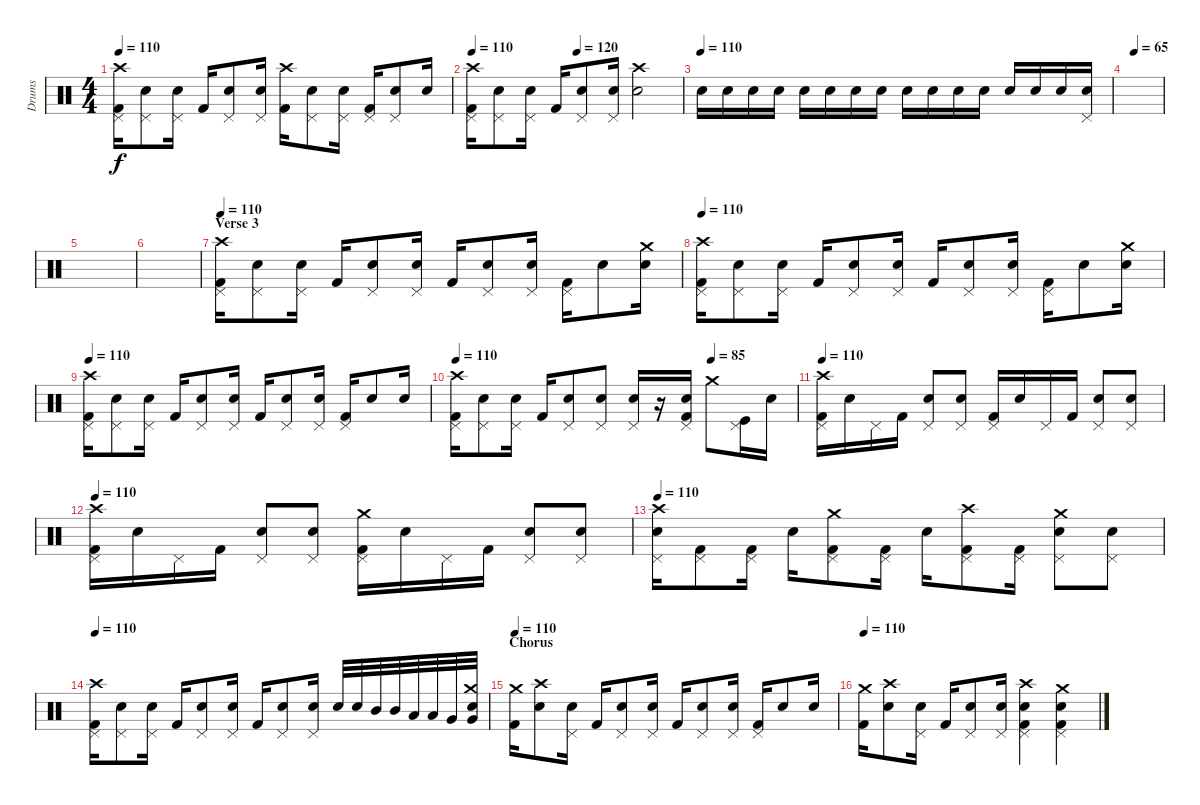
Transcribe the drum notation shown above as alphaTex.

\track ("Drums" "Drums") {instrument percussion}
\staff {score}
\articulation defaults
\ts (4 4)
\tempo 110
\clef neutral
\ks c
("Crash high (hit)" "Kick (hit) 2" "Pedal Hi-Hat (hit)").16{dy f volume 13} ("Electric Snare (hit)" "Pedal Hi-Hat (hit)").8 ("Electric Snare (hit)" "Pedal Hi-Hat (hit)").16 "Kick (hit) 2".16 ("Electric Snare (hit)" "Pedal Hi-Hat (hit)").8 ("Electric Snare (hit)" "Pedal Hi-Hat (hit)").16 ("Crash high (hit)" "Kick (hit) 2").16 ("Electric Snare (hit)" "Pedal Hi-Hat (hit)").8 ("Electric Snare (hit)" "Pedal Hi-Hat (hit)").16 ("Kick (hit) 2" "Pedal Hi-Hat (hit)").16 ("Electric Snare (hit)" "Pedal Hi-Hat (hit)").8 "Electric Snare (hit)".16 |
\tempo 110
\tempo (120 0.5)
("Crash high (hit)" "Kick (hit) 2" "Pedal Hi-Hat (hit)").16{volume 13} ("Electric Snare (hit)" "Pedal Hi-Hat (hit)").8 ("Electric Snare (hit)" "Pedal Hi-Hat (hit)").16 "Kick (hit) 2".16 ("Electric Snare (hit)" "Pedal Hi-Hat (hit)").8 ("Electric Snare (hit)" "Pedal Hi-Hat (hit)").16 ("Crash high (hit)" "Electric Snare (hit)").2 |
\tempo (110)
"Electric Snare (hit)".16{volume 9} "Electric Snare (hit)".16 "Electric Snare (hit)".16{volume 10} "Electric Snare (hit)".16 "Electric Snare (hit)".16{volume 11} "Electric Snare (hit)".16 "Electric Snare (hit)".16{volume 12} "Electric Snare (hit)".16 "Electric Snare (hit)".16{volume 13} "Electric Snare (hit)".16 "Electric Snare (hit)".16{volume 14} "Electric Snare (hit)".16 "Electric Snare (hit)".16{volume 15} "Electric Snare (hit)".16 "Electric Snare (hit)".16 ("Electric Snare (hit)" "Pedal Hi-Hat (hit)").16 |
\tempo (65 0.25)
|
|
|
\section ("" "Verse 3")
\tempo 110
("Crash high (hit)" "Kick (hit) 2" "Pedal Hi-Hat (hit)").16{volume 13} ("Electric Snare (hit)" "Pedal Hi-Hat (hit)").8 ("Electric Snare (hit)" "Pedal Hi-Hat (hit)").16 "Kick (hit) 2".16 ("Electric Snare (hit)" "Pedal Hi-Hat (hit)").8 ("Electric Snare (hit)" "Pedal Hi-Hat (hit)").16 "Kick (hit) 2".16 ("Electric Snare (hit)" "Pedal Hi-Hat (hit)").8 ("Electric Snare (hit)" "Pedal Hi-Hat (hit)").16 ("Kick (hit) 2" "Pedal Hi-Hat (hit)").16 "Electric Snare (hit)".8 ("Electric Snare (hit)" "Crash medium (hit)").16 |
\tempo 110
("Crash high (hit)" "Kick (hit) 2" "Pedal Hi-Hat (hit)").16{volume 13} ("Electric Snare (hit)" "Pedal Hi-Hat (hit)").8 ("Electric Snare (hit)" "Pedal Hi-Hat (hit)").16 "Kick (hit) 2".16 ("Electric Snare (hit)" "Pedal Hi-Hat (hit)").8 ("Electric Snare (hit)" "Pedal Hi-Hat (hit)").16 "Kick (hit) 2".16 ("Electric Snare (hit)" "Pedal Hi-Hat (hit)").8 ("Electric Snare (hit)" "Pedal Hi-Hat (hit)").16 ("Kick (hit) 2" "Pedal Hi-Hat (hit)").16 "Electric Snare (hit)".8 ("Electric Snare (hit)" "Crash medium (hit)").16 |
\tempo 110
("Crash high (hit)" "Kick (hit) 2" "Pedal Hi-Hat (hit)").16{volume 13} ("Electric Snare (hit)" "Pedal Hi-Hat (hit)").8 ("Electric Snare (hit)" "Pedal Hi-Hat (hit)").16 "Kick (hit) 2".16 ("Electric Snare (hit)" "Pedal Hi-Hat (hit)").8 ("Electric Snare (hit)" "Pedal Hi-Hat (hit)").16 "Kick (hit) 2".16 ("Electric Snare (hit)" "Pedal Hi-Hat (hit)").8 ("Electric Snare (hit)" "Pedal Hi-Hat (hit)").16 ("Kick (hit) 2" "Pedal Hi-Hat (hit)").16 "Electric Snare (hit)".8 "Electric Snare (hit)".16 |
\tempo 110
\tempo (85 0.75)
("Crash high (hit)" "Kick (hit) 2" "Pedal Hi-Hat (hit)").16 ("Electric Snare (hit)" "Pedal Hi-Hat (hit)").8 ("Electric Snare (hit)" "Pedal Hi-Hat (hit)").16 "Kick (hit) 2".16 ("Electric Snare (hit)" "Pedal Hi-Hat (hit)").8 ("Electric Snare (hit)" "Pedal Hi-Hat (hit)").8 ("Electric Snare (hit)" "Pedal Hi-Hat (hit)").16 r.16 ("Electric Snare (hit)" "Kick (hit) 2" "Pedal Hi-Hat (hit)").16 "Crash medium (hit)".8 ("Kick (hit)" "Pedal Hi-Hat (hit)").16 "Electric Snare (hit)".16 |
\tempo 110
("Crash high (hit)" "Kick (hit) 2" "Pedal Hi-Hat (hit)").16{volume 13} "Electric Snare (hit)".16 "Pedal Hi-Hat (hit)".16 "Kick (hit) 2".16 ("Electric Snare (hit)" "Pedal Hi-Hat (hit)").8 ("Electric Snare (hit)" "Pedal Hi-Hat (hit)").8 ("Kick (hit) 2" "Pedal Hi-Hat (hit)").16 "Electric Snare (hit)".16 "Pedal Hi-Hat (hit)".16 "Kick (hit) 2".16 ("Electric Snare (hit)" "Pedal Hi-Hat (hit)").8 ("Electric Snare (hit)" "Pedal Hi-Hat (hit)").8 |
\tempo 110
("Crash high (hit)" "Kick (hit) 2" "Pedal Hi-Hat (hit)").16{volume 13} "Electric Snare (hit)".16 "Pedal Hi-Hat (hit)".16 "Kick (hit) 2".16 ("Electric Snare (hit)" "Pedal Hi-Hat (hit)").8 ("Electric Snare (hit)" "Pedal Hi-Hat (hit)").8 ("Crash medium (hit)" "Kick (hit) 2" "Pedal Hi-Hat (hit)").16 "Electric Snare (hit)".16 "Pedal Hi-Hat (hit)".16 "Kick (hit) 2".16 ("Electric Snare (hit)" "Pedal Hi-Hat (hit)").8 ("Electric Snare (hit)" "Pedal Hi-Hat (hit)").8 |
\tempo 110
("Crash high (hit)" "Electric Snare (hit)" "Pedal Hi-Hat (hit)").16{volume 13} ("Kick (hit) 2" "Pedal Hi-Hat (hit)").8 ("Kick (hit) 2" "Pedal Hi-Hat (hit)").16 "Electric Snare (hit)".16 ("Kick (hit) 2" "Crash medium (hit)" "Pedal Hi-Hat (hit)").8 ("Kick (hit) 2" "Pedal Hi-Hat (hit)").16 "Electric Snare (hit)".16 ("Kick (hit) 2" "Crash high (hit)" "Pedal Hi-Hat (hit)").8 ("Kick (hit) 2" "Pedal Hi-Hat (hit)").16 ("Electric Snare (hit)" "Crash medium (hit)" "Pedal Hi-Hat (hit)").8 ("Electric Snare (hit)" "Pedal Hi-Hat (hit)").8 |
\tempo 110
("Crash high (hit)" "Kick (hit) 2" "Pedal Hi-Hat (hit)").16{volume 13} ("Electric Snare (hit)" "Pedal Hi-Hat (hit)").8 ("Electric Snare (hit)" "Pedal Hi-Hat (hit)").16 "Kick (hit) 2".16 ("Electric Snare (hit)" "Pedal Hi-Hat (hit)").8 ("Electric Snare (hit)" "Pedal Hi-Hat (hit)").16 "Kick (hit) 2".16 ("Electric Snare (hit)" "Pedal Hi-Hat (hit)").8 ("Electric Snare (hit)" "Pedal Hi-Hat (hit)").16 "Electric Snare (hit)".32 "Electric Snare (hit)".32 "Mid Tom (hit)".32 "Mid Tom (hit)".32 "Low Tom (hit)".32 "Low Tom (hit)".32 "Very Low Tom (hit)".32 ("Crash medium (hit)" "Very Low Tom (hit)" "Electric Snare (hit)").32 |
\section ("" "Chorus")
\tempo 110
("Kick (hit) 2" "Crash medium (hit)").16{volume 13} ("Electric Snare (hit)" "Crash high (hit)").8 ("Electric Snare (hit)" "Pedal Hi-Hat (hit)").16 "Kick (hit) 2".16 ("Electric Snare (hit)" "Pedal Hi-Hat (hit)").8 ("Electric Snare (hit)" "Pedal Hi-Hat (hit)").16 "Kick (hit) 2".16 ("Electric Snare (hit)" "Pedal Hi-Hat (hit)").8 ("Electric Snare (hit)" "Pedal Hi-Hat (hit)").16 ("Kick (hit) 2" "Pedal Hi-Hat (hit)").16 "Electric Snare (hit)".8 "Electric Snare (hit)".16 |
\tempo 110
("Kick (hit) 2" "Crash medium (hit)").16{volume 13} ("Electric Snare (hit)" "Crash high (hit)").8 ("Electric Snare (hit)" "Pedal Hi-Hat (hit)").16 "Kick (hit) 2".16 ("Electric Snare (hit)" "Pedal Hi-Hat (hit)").8 ("Electric Snare (hit)" "Pedal Hi-Hat (hit)").16 ("Electric Snare (hit)" "Kick (hit) 2" "Pedal Hi-Hat (hit)" "Crash high (hit)").4 ("Electric Snare (hit)" "Kick (hit) 2" "Pedal Hi-Hat (hit)" "Crash medium (hit)").4
